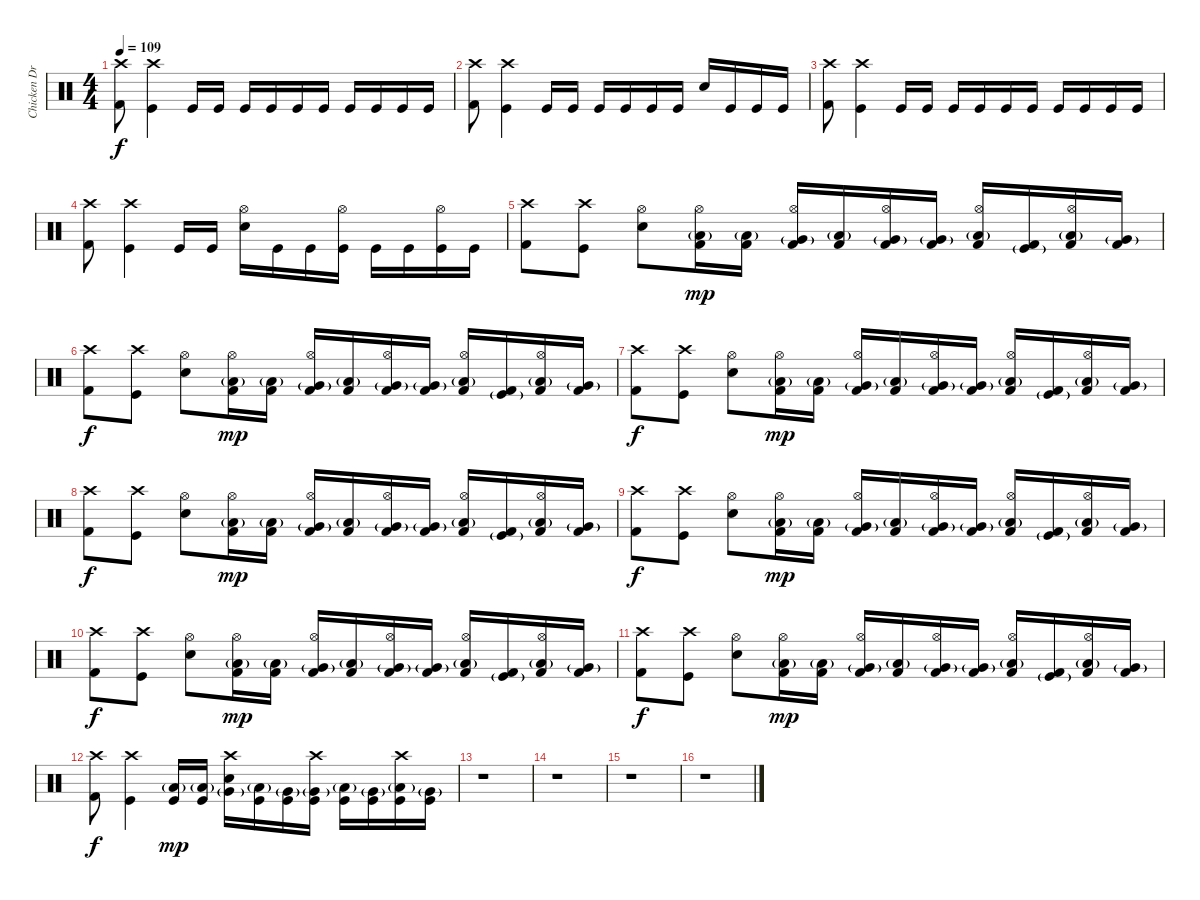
\track ("Chicken Drum" "Chicken Dr") {instrument percussion}
\staff {score}
\articulation defaults
\ts (4 4)
\tempo 109
\clef neutral
\ks c
("Crash high (hit)" "Kick (hit) 2").8{dy f} ("Crash high (hit)" "Kick (hit)").4 "Kick (hit)".16 "Kick (hit)".16 "Kick (hit)".16 "Kick (hit)".16 "Kick (hit)".16 "Kick (hit)".16 "Kick (hit)".16 "Kick (hit)".16 "Kick (hit)".16 "Kick (hit)".16 |
("Crash high (hit)" "Kick (hit) 2").8 ("Crash high (hit)" "Kick (hit)").4 "Kick (hit)".16 "Kick (hit)".16 "Kick (hit)".16 "Kick (hit)".16 "Kick (hit)".16 "Kick (hit)".16 "Snare (hit) 2".16 "Kick (hit)".16 "Kick (hit)".16 "Kick (hit)".16 |
("Crash high (hit)" "Kick (hit) 2").8 ("Crash high (hit)" "Kick (hit)").4 "Kick (hit)".16 "Kick (hit)".16 "Kick (hit)".16 "Kick (hit)".16 "Kick (hit)".16 "Kick (hit)".16 "Kick (hit)".16 "Kick (hit)".16 "Kick (hit)".16 "Kick (hit)".16 |
("Crash high (hit)" "Kick (hit) 2").8 ("Crash high (hit)" "Kick (hit)").4 "Kick (hit)".16 "Kick (hit)".16 ("Hi-Hat (open)" "Snare (hit) 2").16 "Kick (hit)".16 "Kick (hit)".16 ("Hi-Hat (open)" "Kick (hit)").16 "Kick (hit)".16 "Kick (hit)".16 ("Hi-Hat (open)" "Kick (hit)").16 "Kick (hit)".16 |
("Crash high (hit)" "Kick (hit) 2").8 ("Crash high (hit)" "Kick (hit)").8 ("Hi-Hat (open)" "Snare (hit) 2").8 ("Hi-Hat (open)" "Low Floor Tom (hit)"{g} "Kick (hit) 2").16{dy mp} ("Low Floor Tom (hit)"{g} "Kick (hit) 2").16 ("Hi-Hat (open)" "Very Low Tom (hit)"{g} "Kick (hit) 2").16 ("Low Tom (hit)"{g} "Kick (hit) 2").16 ("Hi-Hat (open)" "Very Low Tom (hit)"{g} "Kick (hit) 2").16 ("Very Low Tom (hit)"{g} "Kick (hit) 2").16 ("Hi-Hat (open)" "Low Tom (hit)"{g} "Kick (hit) 2").16 ("Kick (hit)"{g} "Kick (hit) 2").16 ("Hi-Hat (open)" "Low Tom (hit)"{g} "Kick (hit) 2").16 ("Very Low Tom (hit)"{g} "Kick (hit) 2").16 |
("Crash high (hit)" "Kick (hit) 2").8{dy f} ("Crash high (hit)" "Kick (hit)").8 ("Hi-Hat (open)" "Snare (hit) 2").8 ("Hi-Hat (open)" "Low Floor Tom (hit)"{g} "Kick (hit) 2").16{dy mp} ("Low Floor Tom (hit)"{g} "Kick (hit) 2").16 ("Hi-Hat (open)" "Very Low Tom (hit)"{g} "Kick (hit) 2").16 ("Low Tom (hit)"{g} "Kick (hit) 2").16 ("Hi-Hat (open)" "Very Low Tom (hit)"{g} "Kick (hit) 2").16 ("Very Low Tom (hit)"{g} "Kick (hit) 2").16 ("Hi-Hat (open)" "Low Tom (hit)"{g} "Kick (hit) 2").16 ("Kick (hit)"{g} "Kick (hit) 2").16 ("Hi-Hat (open)" "Low Tom (hit)"{g} "Kick (hit) 2").16 ("Very Low Tom (hit)"{g} "Kick (hit) 2").16 |
("Crash high (hit)" "Kick (hit) 2").8{dy f} ("Crash high (hit)" "Kick (hit)").8 ("Hi-Hat (open)" "Snare (hit) 2").8 ("Hi-Hat (open)" "Low Floor Tom (hit)"{g} "Kick (hit) 2").16{dy mp} ("Low Floor Tom (hit)"{g} "Kick (hit) 2").16 ("Hi-Hat (open)" "Very Low Tom (hit)"{g} "Kick (hit) 2").16 ("Low Tom (hit)"{g} "Kick (hit) 2").16 ("Hi-Hat (open)" "Very Low Tom (hit)"{g} "Kick (hit) 2").16 ("Very Low Tom (hit)"{g} "Kick (hit) 2").16 ("Hi-Hat (open)" "Low Tom (hit)"{g} "Kick (hit) 2").16 ("Kick (hit)"{g} "Kick (hit) 2").16 ("Hi-Hat (open)" "Low Tom (hit)"{g} "Kick (hit) 2").16 ("Very Low Tom (hit)"{g} "Kick (hit) 2").16 |
("Crash high (hit)" "Kick (hit) 2").8{dy f} ("Crash high (hit)" "Kick (hit)").8 ("Hi-Hat (open)" "Snare (hit) 2").8 ("Hi-Hat (open)" "Low Floor Tom (hit)"{g} "Kick (hit) 2").16{dy mp} ("Low Floor Tom (hit)"{g} "Kick (hit) 2").16 ("Hi-Hat (open)" "Very Low Tom (hit)"{g} "Kick (hit) 2").16 ("Low Tom (hit)"{g} "Kick (hit) 2").16 ("Hi-Hat (open)" "Very Low Tom (hit)"{g} "Kick (hit) 2").16 ("Very Low Tom (hit)"{g} "Kick (hit) 2").16 ("Hi-Hat (open)" "Low Tom (hit)"{g} "Kick (hit) 2").16 ("Kick (hit)"{g} "Kick (hit) 2").16 ("Hi-Hat (open)" "Low Tom (hit)"{g} "Kick (hit) 2").16 ("Very Low Tom (hit)"{g} "Kick (hit) 2").16 |
("Crash high (hit)" "Kick (hit) 2").8{dy f} ("Crash high (hit)" "Kick (hit)").8 ("Hi-Hat (open)" "Snare (hit) 2").8 ("Hi-Hat (open)" "Low Floor Tom (hit)"{g} "Kick (hit) 2").16{dy mp} ("Low Floor Tom (hit)"{g} "Kick (hit) 2").16 ("Hi-Hat (open)" "Very Low Tom (hit)"{g} "Kick (hit) 2").16 ("Low Tom (hit)"{g} "Kick (hit) 2").16 ("Hi-Hat (open)" "Very Low Tom (hit)"{g} "Kick (hit) 2").16 ("Very Low Tom (hit)"{g} "Kick (hit) 2").16 ("Hi-Hat (open)" "Low Tom (hit)"{g} "Kick (hit) 2").16 ("Kick (hit)"{g} "Kick (hit) 2").16 ("Hi-Hat (open)" "Low Tom (hit)"{g} "Kick (hit) 2").16 ("Very Low Tom (hit)"{g} "Kick (hit) 2").16 |
("Crash high (hit)" "Kick (hit) 2").8{dy f} ("Crash high (hit)" "Kick (hit)").8 ("Hi-Hat (open)" "Snare (hit) 2").8 ("Hi-Hat (open)" "Low Floor Tom (hit)"{g} "Kick (hit) 2").16{dy mp} ("Low Floor Tom (hit)"{g} "Kick (hit) 2").16 ("Hi-Hat (open)" "Very Low Tom (hit)"{g} "Kick (hit) 2").16 ("Low Tom (hit)"{g} "Kick (hit) 2").16 ("Hi-Hat (open)" "Very Low Tom (hit)"{g} "Kick (hit) 2").16 ("Very Low Tom (hit)"{g} "Kick (hit) 2").16 ("Hi-Hat (open)" "Low Tom (hit)"{g} "Kick (hit) 2").16 ("Kick (hit)"{g} "Kick (hit) 2").16 ("Hi-Hat (open)" "Low Tom (hit)"{g} "Kick (hit) 2").16 ("Very Low Tom (hit)"{g} "Kick (hit) 2").16 |
("Crash high (hit)" "Kick (hit) 2").8{dy f} ("Crash high (hit)" "Kick (hit)").8 ("Hi-Hat (open)" "Snare (hit) 2").8 ("Hi-Hat (open)" "Low Floor Tom (hit)"{g} "Kick (hit) 2").16{dy mp} ("Low Floor Tom (hit)"{g} "Kick (hit) 2").16 ("Hi-Hat (open)" "Very Low Tom (hit)"{g} "Kick (hit) 2").16 ("Low Tom (hit)"{g} "Kick (hit) 2").16 ("Hi-Hat (open)" "Very Low Tom (hit)"{g} "Kick (hit) 2").16 ("Very Low Tom (hit)"{g} "Kick (hit) 2").16 ("Hi-Hat (open)" "Low Tom (hit)"{g} "Kick (hit) 2").16 ("Kick (hit)"{g} "Kick (hit) 2").16 ("Hi-Hat (open)" "Low Tom (hit)"{g} "Kick (hit) 2").16 ("Very Low Tom (hit)"{g} "Kick (hit) 2").16 |
("Crash high (hit)" "Kick (hit) 2").8{dy f} ("Crash high (hit)" "Kick (hit)").4 ("Low Floor Tom (hit)"{g} "Kick (hit)").16{dy mp} ("Low Floor Tom (hit)"{g} "Kick (hit)").16 ("Crash high (hit)" "Very Low Tom (hit)"{g} "Snare (hit) 2").16 ("Low Tom (hit)"{g} "Kick (hit)").16 ("Very Low Tom (hit)"{g} "Kick (hit)").16 ("Crash high (hit)" "Very Low Tom (hit)"{g} "Kick (hit)").16 ("Low Tom (hit)"{g} "Kick (hit)").16 ("Very Low Tom (hit)"{g} "Kick (hit)").16 ("Crash high (hit)" "Low Tom (hit)"{g} "Kick (hit)").16 ("Very Low Tom (hit)"{g} "Kick (hit)").16 |
r.1 |
r.1 |
r.1 |
r.1
